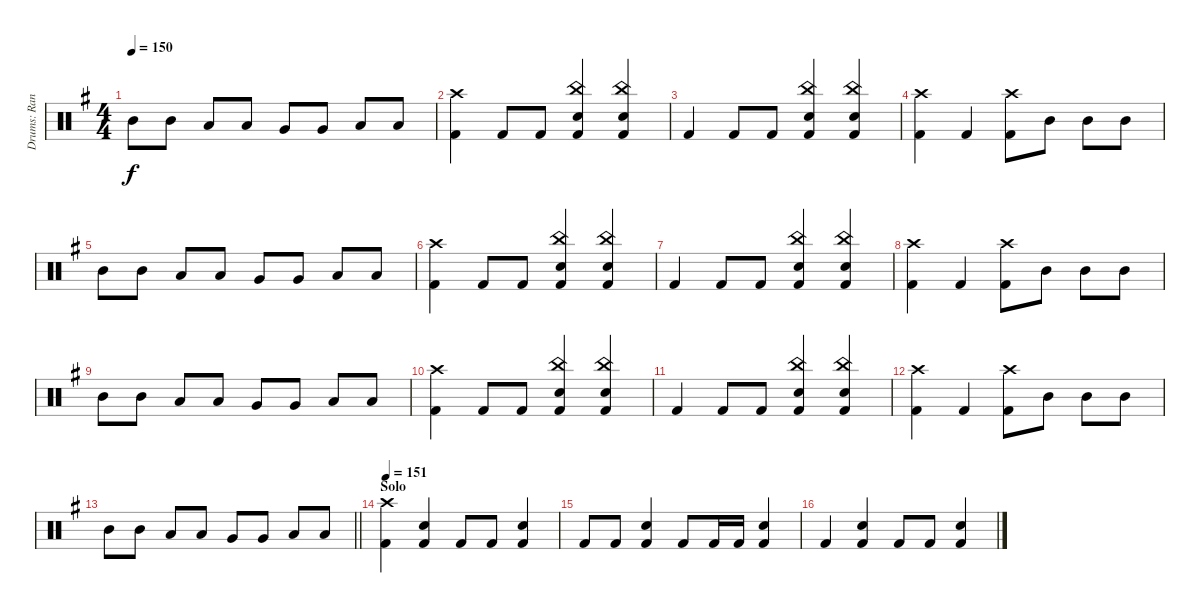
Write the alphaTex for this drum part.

\track ("Drums: Randy" "Drums: Ran") {instrument percussion}
\staff {score}
\articulation defaults
\ts (4 4)
\tempo 150
\clef neutral
\ks g "Mid Tom (hit)".8{dy f} "Mid Tom (hit)".8 "Low Tom (hit)".8 "Low Tom (hit)".8 "Very Low Tom (hit)".8 "Very Low Tom (hit)".8 "Low Floor Tom (hit)".8 "Low Floor Tom (hit)".8
|
("Crash high (hit)" "Kick (hit) 2").4 "Kick (hit) 2".8 "Kick (hit) 2".8 ("China (hit)" "Snare (hit) 2" "Kick (hit) 2").4 ("China (hit)" "Snare (hit) 2" "Kick (hit) 2").4 |
"Kick (hit) 2".4 "Kick (hit) 2".8 "Kick (hit) 2".8 ("China (hit)" "Snare (hit) 2" "Kick (hit) 2").4 ("China (hit)" "Snare (hit) 2" "Kick (hit) 2").4 |
("Crash high (hit)" "Kick (hit) 2").4 "Kick (hit) 2".4 ("Crash high (hit)" "Kick (hit) 2").8 "Mid Tom (hit)".8 "Mid Tom (hit)".8 "Mid Tom (hit)".8 |
"Mid Tom (hit)".8 "Mid Tom (hit)".8 "Low Tom (hit)".8 "Low Tom (hit)".8 "Very Low Tom (hit)".8 "Very Low Tom (hit)".8 "Low Floor Tom (hit)".8 "Low Floor Tom (hit)".8 |
("Crash high (hit)" "Kick (hit) 2").4 "Kick (hit) 2".8 "Kick (hit) 2".8 ("China (hit)" "Snare (hit) 2" "Kick (hit) 2").4 ("China (hit)" "Snare (hit) 2" "Kick (hit) 2").4 |
"Kick (hit) 2".4 "Kick (hit) 2".8 "Kick (hit) 2".8 ("China (hit)" "Snare (hit) 2" "Kick (hit) 2").4 ("China (hit)" "Snare (hit) 2" "Kick (hit) 2").4 |
("Crash high (hit)" "Kick (hit) 2").4 "Kick (hit) 2".4 ("Crash high (hit)" "Kick (hit) 2").8 "Mid Tom (hit)".8 "Mid Tom (hit)".8 "Mid Tom (hit)".8 |
"Mid Tom (hit)".8 "Mid Tom (hit)".8 "Low Tom (hit)".8 "Low Tom (hit)".8 "Very Low Tom (hit)".8 "Very Low Tom (hit)".8 "Low Floor Tom (hit)".8 "Low Floor Tom (hit)".8 |
("Crash high (hit)" "Kick (hit) 2").4 "Kick (hit) 2".8 "Kick (hit) 2".8 ("China (hit)" "Snare (hit) 2" "Kick (hit) 2").4 ("China (hit)" "Snare (hit) 2" "Kick (hit) 2").4 |
"Kick (hit) 2".4 "Kick (hit) 2".8 "Kick (hit) 2".8 ("China (hit)" "Snare (hit) 2" "Kick (hit) 2").4 ("China (hit)" "Snare (hit) 2" "Kick (hit) 2").4 |
("Crash high (hit)" "Kick (hit) 2").4 "Kick (hit) 2".4 ("Crash high (hit)" "Kick (hit) 2").8 "Mid Tom (hit)".8 "Mid Tom (hit)".8 "Mid Tom (hit)".8 |
\barLineRight lightlight "Mid Tom (hit)".8 "Mid Tom (hit)".8 "Low Tom (hit)".8 "Low Tom (hit)".8 "Very Low Tom (hit)".8 "Very Low Tom (hit)".8 "Low Floor Tom (hit)".8 "Low Floor Tom (hit)".8
|
\section ("" "Solo")
\tempo 151
("Crash high (hit)" "Kick (hit) 2").4 ("Snare (hit) 2" "Kick (hit) 2").4 "Kick (hit) 2".8 "Kick (hit) 2".8 ("Snare (hit) 2" "Kick (hit) 2").4 |
"Kick (hit) 2".8 "Kick (hit) 2".8 ("Snare (hit) 2" "Kick (hit) 2").4 "Kick (hit) 2".8 "Kick (hit) 2".16 "Kick (hit) 2".16 ("Snare (hit) 2" "Kick (hit) 2").4 |
"Kick (hit) 2".4 ("Snare (hit) 2" "Kick (hit) 2").4 "Kick (hit) 2".8 "Kick (hit) 2".8 ("Snare (hit) 2" "Kick (hit) 2").4
